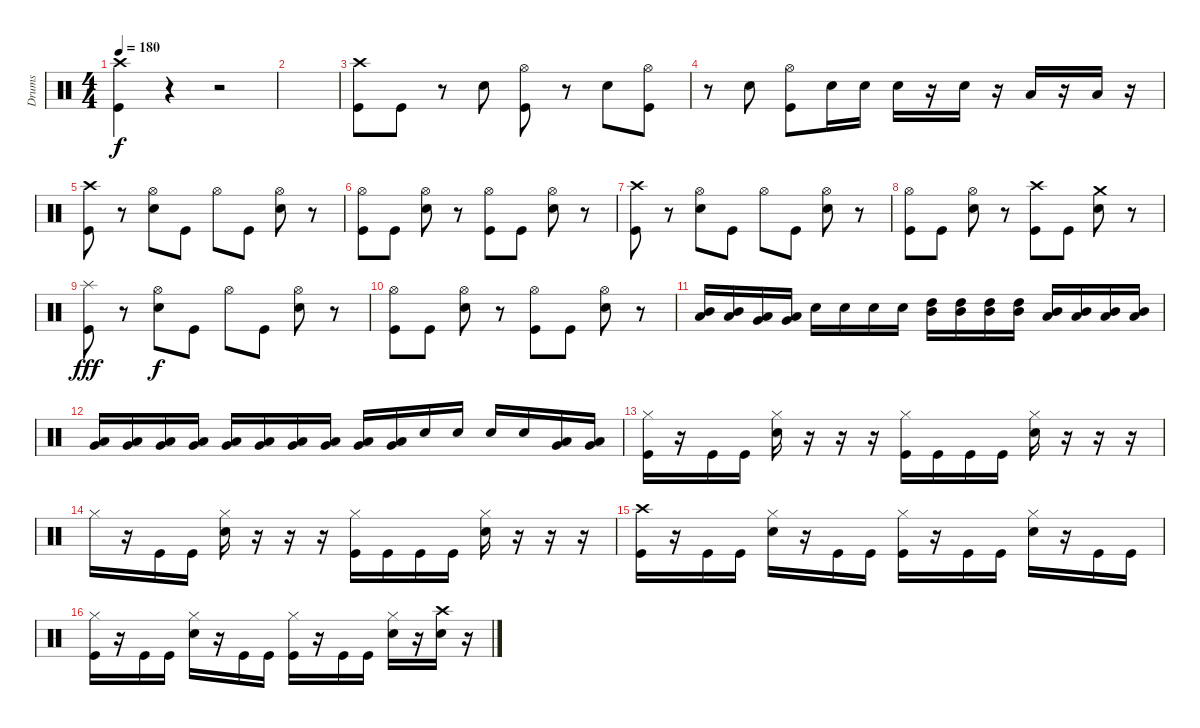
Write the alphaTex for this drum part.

\track ("Drums" "Drums") {instrument percussion}
\staff {score}
\articulation defaults
\ts (4 4)
\tempo 180
\clef neutral
\ks c
("Crash high (hit)" "Kick (hit)").4{dy f} r.4 r.2 |
|
("Crash high (hit)" "Kick (hit)").8 "Kick (hit)".8 r.8 "Snare (hit) 2".8 ("Hi-Hat (open)" "Kick (hit)").8 r.8 "Snare (hit) 2".8 ("Hi-Hat (open)" "Kick (hit)").8 |
r.8 "Snare (hit) 2".8 ("Hi-Hat (open)" "Kick (hit)").8 "Snare (hit) 2".16 "Snare (hit) 2".16 "Snare (hit) 2".16 r.16 "Snare (hit) 2".16 r.16 "Low Tom (hit)".16 r.16 "Low Floor Tom (hit)".16 r.16 |
("Crash high (hit)" "Kick (hit)").8 r.8 ("Hi-Hat (open)" "Snare (hit) 2").8 "Kick (hit)".8 "Hi-Hat (open)".8 "Kick (hit)".8 ("Hi-Hat (open)" "Snare (hit) 2").8 r.8 |
("Hi-Hat (open)" "Kick (hit)").8 "Kick (hit)".8 ("Hi-Hat (open)" "Snare (hit) 2").8 r.8 ("Hi-Hat (open)" "Kick (hit)").8 "Kick (hit)".8 ("Hi-Hat (open)" "Snare (hit) 2").8 r.8 |
("Crash high (hit)" "Kick (hit)").8 r.8 ("Hi-Hat (open)" "Snare (hit) 2").8 "Kick (hit)".8 "Hi-Hat (open)".8 "Kick (hit)".8 ("Hi-Hat (open)" "Snare (hit) 2").8 r.8 |
("Hi-Hat (open)" "Kick (hit)").8 "Kick (hit)".8 ("Hi-Hat (open)" "Snare (hit) 2").8 r.8 ("Crash high (hit)" "Kick (hit)").8 "Kick (hit)".8 ("Crash medium (hit)" "Snare (hit) 2").8 r.8 |
("Splash (hit)" "Kick (hit)").8{dy fff} r.8 ("Hi-Hat (open)" "Snare (hit) 2").8{dy f} "Kick (hit)".8 "Hi-Hat (open)".8 "Kick (hit)".8 ("Hi-Hat (open)" "Snare (hit) 2").8 r.8 |
("Hi-Hat (open)" "Kick (hit)").8 "Kick (hit)".8 ("Hi-Hat (open)" "Snare (hit) 2").8 r.8 ("Hi-Hat (open)" "Kick (hit)").8 "Kick (hit)".8 ("Hi-Hat (open)" "Snare (hit) 2").8 r.8 |
("Mid Tom (hit)" "Low Tom (hit)").16 ("Mid Tom (hit)" "Low Tom (hit)").16 ("Low Tom (hit)" "Very Low Tom (hit)").16 ("Low Tom (hit)" "Very Low Tom (hit)").16 "Snare (hit) 2".16 "Snare (hit) 2".16 "Snare (hit) 2".16 "Snare (hit) 2".16 ("High Tom (hit)" "Mid Tom (hit)").16 ("High Tom (hit)" "Mid Tom (hit)").16 ("High Tom (hit)" "Mid Tom (hit)").16 ("High Tom (hit)" "Mid Tom (hit)").16 ("Mid Tom (hit)" "Low Tom (hit)").16 ("Mid Tom (hit)" "Low Tom (hit)").16 ("Mid Tom (hit)" "Low Tom (hit)").16 ("Mid Tom (hit)" "Low Tom (hit)").16 |
("Low Tom (hit)" "Very Low Tom (hit)").16 ("Low Tom (hit)" "Very Low Tom (hit)").16 ("Low Tom (hit)" "Very Low Tom (hit)").16 ("Low Tom (hit)" "Very Low Tom (hit)").16 ("Very Low Tom (hit)" "Low Floor Tom (hit)").16 ("Very Low Tom (hit)" "Low Floor Tom (hit)").16 ("Very Low Tom (hit)" "Low Floor Tom (hit)").16 ("Very Low Tom (hit)" "Low Floor Tom (hit)").16 ("Low Tom (hit)" "Very Low Tom (hit)").16 ("Low Tom (hit)" "Very Low Tom (hit)").16 "Snare (hit) 2".16 "Snare (hit) 2".16 "Snare (hit) 2".16 "Snare (hit) 2".16 ("Very Low Tom (hit)" "Low Floor Tom (hit)").16 ("Very Low Tom (hit)" "Low Floor Tom (hit)").16 |
("Hi-Hat (closed)" "Kick (hit)").16 r.16 "Kick (hit)".16 "Kick (hit)".16 ("Hi-Hat (closed)" "Snare (hit) 2").16 r.16 r.16 r.16 ("Hi-Hat (closed)" "Kick (hit)").16 "Kick (hit)".16 "Kick (hit)".16 "Kick (hit)".16 ("Hi-Hat (closed)" "Snare (hit) 2").16 r.16 r.16 r.16 |
"Hi-Hat (closed)".16 r.16 "Kick (hit)".16 "Kick (hit)".16 ("Hi-Hat (closed)" "Snare (hit) 2").16 r.16 r.16 r.16 ("Hi-Hat (closed)" "Kick (hit)").16 "Kick (hit)".16 "Kick (hit)".16 "Kick (hit)".16 ("Hi-Hat (closed)" "Snare (hit) 2").16 r.16 r.16 r.16 |
("Crash high (hit)" "Kick (hit)").16 r.16 "Kick (hit)".16 "Kick (hit)".16 ("Hi-Hat (closed)" "Snare (hit) 2").16 r.16 "Kick (hit)".16 "Kick (hit)".16 ("Hi-Hat (closed)" "Kick (hit)").16 r.16 "Kick (hit)".16 "Kick (hit)".16 ("Hi-Hat (closed)" "Snare (hit) 2").16 r.16 "Kick (hit)".16 "Kick (hit)".16 |
("Hi-Hat (closed)" "Kick (hit)").16 r.16 "Kick (hit)".16 "Kick (hit)".16 ("Hi-Hat (closed)" "Snare (hit) 2").16 r.16 "Kick (hit)".16 "Kick (hit)".16 ("Hi-Hat (closed)" "Kick (hit)").16 r.16 "Kick (hit)".16 "Kick (hit)".16 ("Hi-Hat (closed)" "Snare (hit) 2").16 r.16 ("Crash high (hit)" "Snare (hit) 2").16 r.16
